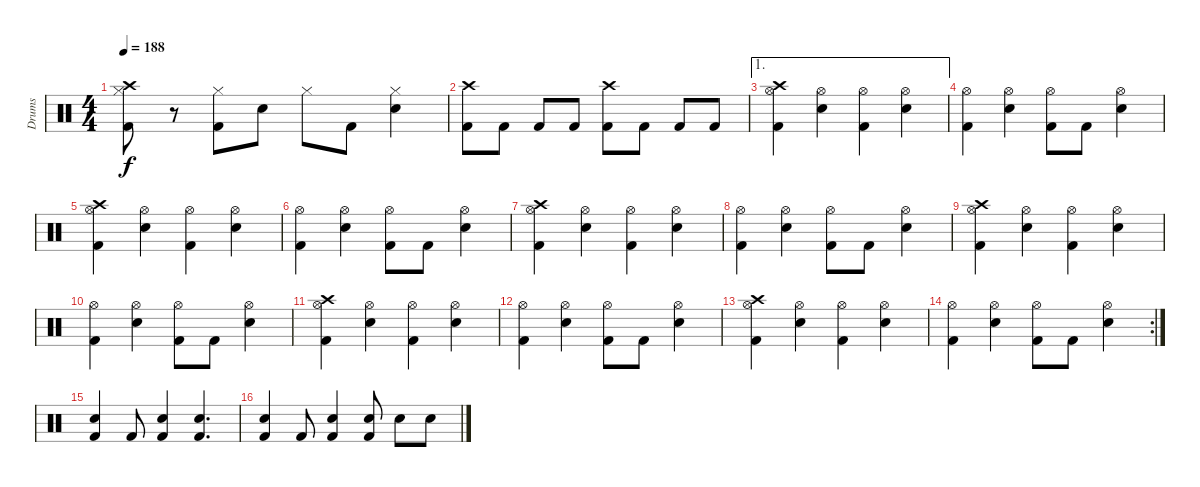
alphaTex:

\track ("Drums" "Drums") {instrument percussion}
\staff {score}
\articulation defaults
\ts (4 4)
\tempo 188
\clef neutral
\ks c
("Crash high (hit)" "Hi-Hat (closed)" "Kick (hit) 2").8{dy f} r.8 ("Hi-Hat (closed)" "Kick (hit) 2").8 "Snare (hit) 2".8 "Hi-Hat (closed)".8 "Kick (hit) 2".8 ("Hi-Hat (closed)" "Snare (hit) 2").4 |
("Crash high (hit)" "Kick (hit) 2").8 "Kick (hit) 2".8 "Kick (hit) 2".8 "Kick (hit) 2".8 ("Crash high (hit)" "Kick (hit) 2").8 "Kick (hit) 2".8 "Kick (hit) 2".8 "Kick (hit) 2".8 |
\ae 1
("Crash high (hit)" "Hi-Hat (open)" "Kick (hit) 2").4 ("Hi-Hat (open)" "Snare (hit) 2").4 ("Hi-Hat (open)" "Kick (hit) 2").4 ("Hi-Hat (open)" "Snare (hit) 2").4 |
("Hi-Hat (open)" "Kick (hit) 2").4 ("Hi-Hat (open)" "Snare (hit) 2").4 ("Hi-Hat (open)" "Kick (hit) 2").8 "Kick (hit) 2".8 ("Hi-Hat (open)" "Snare (hit) 2").4 |
("Crash high (hit)" "Hi-Hat (open)" "Kick (hit) 2").4 ("Hi-Hat (open)" "Snare (hit) 2").4 ("Hi-Hat (open)" "Kick (hit) 2").4 ("Hi-Hat (open)" "Snare (hit) 2").4 |
("Hi-Hat (open)" "Kick (hit) 2").4 ("Hi-Hat (open)" "Snare (hit) 2").4 ("Hi-Hat (open)" "Kick (hit) 2").8 "Kick (hit) 2".8 ("Hi-Hat (open)" "Snare (hit) 2").4 |
("Crash high (hit)" "Hi-Hat (open)" "Kick (hit) 2").4 ("Hi-Hat (open)" "Snare (hit) 2").4 ("Hi-Hat (open)" "Kick (hit) 2").4 ("Hi-Hat (open)" "Snare (hit) 2").4 |
("Hi-Hat (open)" "Kick (hit) 2").4 ("Hi-Hat (open)" "Snare (hit) 2").4 ("Hi-Hat (open)" "Kick (hit) 2").8 "Kick (hit) 2".8 ("Hi-Hat (open)" "Snare (hit) 2").4 |
("Crash high (hit)" "Hi-Hat (open)" "Kick (hit) 2").4 ("Hi-Hat (open)" "Snare (hit) 2").4 ("Hi-Hat (open)" "Kick (hit) 2").4 ("Hi-Hat (open)" "Snare (hit) 2").4 |
("Hi-Hat (open)" "Kick (hit) 2").4 ("Hi-Hat (open)" "Snare (hit) 2").4 ("Hi-Hat (open)" "Kick (hit) 2").8 "Kick (hit) 2".8 ("Hi-Hat (open)" "Snare (hit) 2").4 |
("Crash high (hit)" "Hi-Hat (open)" "Kick (hit) 2").4 ("Hi-Hat (open)" "Snare (hit) 2").4 ("Hi-Hat (open)" "Kick (hit) 2").4 ("Hi-Hat (open)" "Snare (hit) 2").4 |
("Hi-Hat (open)" "Kick (hit) 2").4 ("Hi-Hat (open)" "Snare (hit) 2").4 ("Hi-Hat (open)" "Kick (hit) 2").8 "Kick (hit) 2".8 ("Hi-Hat (open)" "Snare (hit) 2").4 |
("Crash high (hit)" "Hi-Hat (open)" "Kick (hit) 2").4 ("Hi-Hat (open)" "Snare (hit) 2").4 ("Hi-Hat (open)" "Kick (hit) 2").4 ("Hi-Hat (open)" "Snare (hit) 2").4 |
\rc 2
("Hi-Hat (open)" "Kick (hit) 2").4 ("Hi-Hat (open)" "Snare (hit) 2").4 ("Hi-Hat (open)" "Kick (hit) 2").8 "Kick (hit) 2".8 ("Hi-Hat (open)" "Snare (hit) 2").4 |
("Snare (hit) 2" "Kick (hit) 2").4 "Kick (hit) 2".8 ("Snare (hit) 2" "Kick (hit) 2").4 ("Snare (hit) 2" "Kick (hit) 2").4{d} |
("Snare (hit) 2" "Kick (hit) 2").4 "Kick (hit) 2".8 ("Snare (hit) 2" "Kick (hit) 2").4 ("Snare (hit) 2" "Kick (hit) 2").8 "Snare (hit) 2".8 "Snare (hit) 2".8
